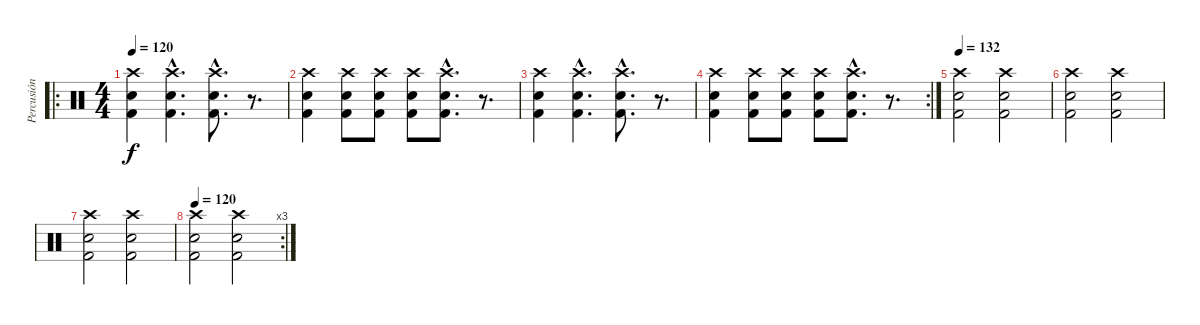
\track ("Percusión" "Percusión") {instrument percussion}
\staff {score}
\articulation defaults
\ro
\ts (4 4)
\tempo 120
\clef neutral
\ks c
("Crash high (hit)" "Snare (hit) 2" "Kick (hit) 2").4{dy f} ("Crash high (hit)"{hac} "Snare (hit) 2"{hac} "Kick (hit) 2"{hac}).4{d} ("Crash high (hit)"{hac} "Snare (hit) 2"{hac} "Kick (hit) 2"{hac}).8{d} r.8{d} |
("Crash high (hit)" "Snare (hit) 2" "Kick (hit) 2").4 ("Crash high (hit)" "Snare (hit) 2" "Kick (hit) 2").8 ("Crash high (hit)" "Snare (hit) 2" "Kick (hit) 2").8 ("Crash high (hit)" "Snare (hit) 2" "Kick (hit) 2").8 ("Crash high (hit)"{hac} "Snare (hit) 2"{hac} "Kick (hit) 2"{hac}).8{d} r.8{d} |
("Crash high (hit)" "Snare (hit) 2" "Kick (hit) 2").4 ("Crash high (hit)"{hac} "Snare (hit) 2"{hac} "Kick (hit) 2"{hac}).4{d} ("Crash high (hit)"{hac} "Snare (hit) 2"{hac} "Kick (hit) 2"{hac}).8{d} r.8{d} |
\rc 2
("Crash high (hit)" "Snare (hit) 2" "Kick (hit) 2").4 ("Crash high (hit)" "Snare (hit) 2" "Kick (hit) 2").8 ("Crash high (hit)" "Snare (hit) 2" "Kick (hit) 2").8 ("Crash high (hit)" "Snare (hit) 2" "Kick (hit) 2").8 ("Crash high (hit)"{hac} "Snare (hit) 2"{hac} "Kick (hit) 2"{hac}).8{d} r.8{d} |
\tempo 132
("Snare (hit) 2" "Crash high (hit)" "Kick (hit) 2").2 ("Snare (hit) 2" "Crash high (hit)" "Kick (hit) 2").2 |
("Snare (hit) 2" "Crash high (hit)" "Kick (hit) 2").2 ("Snare (hit) 2" "Crash high (hit)" "Kick (hit) 2").2 |
("Snare (hit) 2" "Crash high (hit)" "Kick (hit) 2").2 ("Snare (hit) 2" "Crash high (hit)" "Kick (hit) 2").2 |
\rc 3
\tempo 120
("Snare (hit) 2" "Crash high (hit)" "Kick (hit) 2").2 ("Snare (hit) 2" "Crash high (hit)" "Kick (hit) 2").2
